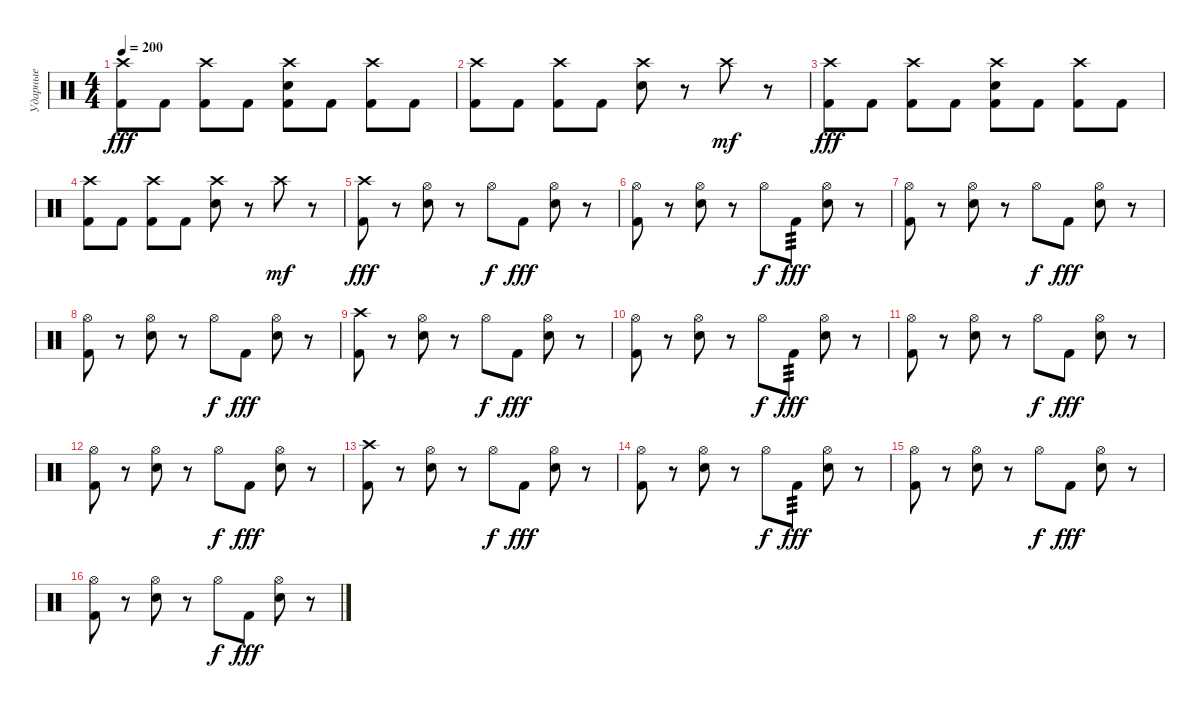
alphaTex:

\track ("Ударные" "Ударные") {instrument percussion}
\staff {score}
\articulation defaults
\ts (4 4)
\tempo 200
\clef neutral
\ks c
("Crash high (hit)" "Kick (hit) 2").8{dy fff} "Kick (hit) 2".8 ("Crash high (hit)" "Kick (hit) 2").8 "Kick (hit) 2".8 ("Crash high (hit)" "Electric Snare (hit)" "Kick (hit) 2").8 "Kick (hit) 2".8 ("Crash high (hit)" "Kick (hit) 2").8 "Kick (hit) 2".8 |
("Crash high (hit)" "Kick (hit) 2").8 "Kick (hit) 2".8 ("Crash high (hit)" "Kick (hit) 2").8 "Kick (hit) 2".8 ("Crash high (hit)" "Electric Snare (hit)").8 r.8 "Crash high (hit)".8{dy mf} r.8 |
("Crash high (hit)" "Kick (hit) 2").8{dy fff} "Kick (hit) 2".8 ("Crash high (hit)" "Kick (hit) 2").8 "Kick (hit) 2".8 ("Crash high (hit)" "Electric Snare (hit)" "Kick (hit) 2").8 "Kick (hit) 2".8 ("Crash high (hit)" "Kick (hit) 2").8 "Kick (hit) 2".8 |
("Crash high (hit)" "Kick (hit) 2").8 "Kick (hit) 2".8 ("Crash high (hit)" "Kick (hit) 2").8 "Kick (hit) 2".8 ("Crash high (hit)" "Electric Snare (hit)").8 r.8 "Crash high (hit)".8{dy mf} r.8 |
("Crash high (hit)" "Kick (hit) 2").8{dy fff} r.8 ("Hi-Hat (open)" "Electric Snare (hit)").8 r.8 "Hi-Hat (open)".8{dy f} "Kick (hit) 2".8{dy fff} ("Hi-Hat (open)" "Electric Snare (hit)").8 r.8 |
("Hi-Hat (open)" "Kick (hit) 2").8 r.8 ("Hi-Hat (open)" "Electric Snare (hit)").8 r.8 "Hi-Hat (open)".8{dy f} "Kick (hit) 2".8{tp 3 dy fff} ("Hi-Hat (open)" "Electric Snare (hit)").8 r.8 |
("Hi-Hat (open)" "Kick (hit) 2").8 r.8 ("Hi-Hat (open)" "Electric Snare (hit)").8 r.8 "Hi-Hat (open)".8{dy f} "Kick (hit) 2".8{dy fff} ("Hi-Hat (open)" "Electric Snare (hit)").8 r.8 |
("Hi-Hat (open)" "Kick (hit) 2").8 r.8 ("Hi-Hat (open)" "Electric Snare (hit)").8 r.8 "Hi-Hat (open)".8{dy f} "Kick (hit) 2".8{dy fff} ("Hi-Hat (open)" "Electric Snare (hit)").8 r.8 |
("Crash high (hit)" "Kick (hit) 2").8 r.8 ("Hi-Hat (open)" "Electric Snare (hit)").8 r.8 "Hi-Hat (open)".8{dy f} "Kick (hit) 2".8{dy fff} ("Hi-Hat (open)" "Electric Snare (hit)").8 r.8 |
("Hi-Hat (open)" "Kick (hit) 2").8 r.8 ("Hi-Hat (open)" "Electric Snare (hit)").8 r.8 "Hi-Hat (open)".8{dy f} "Kick (hit) 2".8{tp 3 dy fff} ("Hi-Hat (open)" "Electric Snare (hit)").8 r.8 |
("Hi-Hat (open)" "Kick (hit) 2").8 r.8 ("Hi-Hat (open)" "Electric Snare (hit)").8 r.8 "Hi-Hat (open)".8{dy f} "Kick (hit) 2".8{dy fff} ("Hi-Hat (open)" "Electric Snare (hit)").8 r.8 |
("Hi-Hat (open)" "Kick (hit) 2").8 r.8 ("Hi-Hat (open)" "Electric Snare (hit)").8 r.8 "Hi-Hat (open)".8{dy f} "Kick (hit) 2".8{dy fff} ("Hi-Hat (open)" "Electric Snare (hit)").8 r.8 |
("Crash high (hit)" "Kick (hit) 2").8 r.8 ("Hi-Hat (open)" "Electric Snare (hit)").8 r.8 "Hi-Hat (open)".8{dy f} "Kick (hit) 2".8{dy fff} ("Hi-Hat (open)" "Electric Snare (hit)").8 r.8 |
("Hi-Hat (open)" "Kick (hit) 2").8 r.8 ("Hi-Hat (open)" "Electric Snare (hit)").8 r.8 "Hi-Hat (open)".8{dy f} "Kick (hit) 2".8{tp 3 dy fff} ("Hi-Hat (open)" "Electric Snare (hit)").8 r.8 |
("Hi-Hat (open)" "Kick (hit) 2").8 r.8 ("Hi-Hat (open)" "Electric Snare (hit)").8 r.8 "Hi-Hat (open)".8{dy f} "Kick (hit) 2".8{dy fff} ("Hi-Hat (open)" "Electric Snare (hit)").8 r.8 |
("Hi-Hat (open)" "Kick (hit) 2").8 r.8 ("Hi-Hat (open)" "Electric Snare (hit)").8 r.8 "Hi-Hat (open)".8{dy f} "Kick (hit) 2".8{dy fff} ("Hi-Hat (open)" "Electric Snare (hit)").8 r.8
